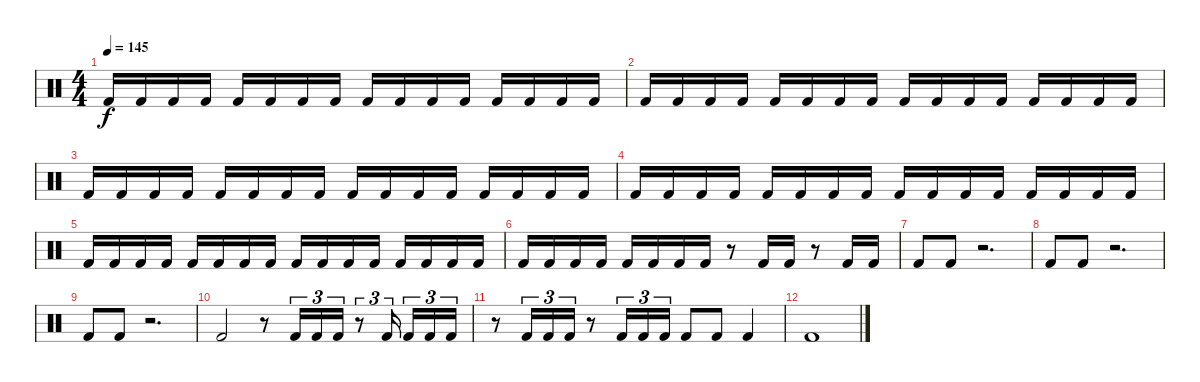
\track "" {instrument percussion}
\staff {score}
\articulation defaults
\ts (4 4)
\tempo 145
\clef neutral
\ks c "Kick (hit) 2".16{dy f} "Kick (hit) 2".16 "Kick (hit) 2".16 "Kick (hit) 2".16 "Kick (hit) 2".16 "Kick (hit) 2".16 "Kick (hit) 2".16 "Kick (hit) 2".16 "Kick (hit) 2".16 "Kick (hit) 2".16 "Kick (hit) 2".16 "Kick (hit) 2".16 "Kick (hit) 2".16 "Kick (hit) 2".16 "Kick (hit) 2".16 "Kick (hit) 2".16
|
"Kick (hit) 2".16 "Kick (hit) 2".16 "Kick (hit) 2".16 "Kick (hit) 2".16 "Kick (hit) 2".16 "Kick (hit) 2".16 "Kick (hit) 2".16 "Kick (hit) 2".16 "Kick (hit) 2".16 "Kick (hit) 2".16 "Kick (hit) 2".16 "Kick (hit) 2".16 "Kick (hit) 2".16 "Kick (hit) 2".16 "Kick (hit) 2".16 "Kick (hit) 2".16 |
"Kick (hit) 2".16 "Kick (hit) 2".16 "Kick (hit) 2".16 "Kick (hit) 2".16 "Kick (hit) 2".16 "Kick (hit) 2".16 "Kick (hit) 2".16 "Kick (hit) 2".16 "Kick (hit) 2".16 "Kick (hit) 2".16 "Kick (hit) 2".16 "Kick (hit) 2".16 "Kick (hit) 2".16 "Kick (hit) 2".16 "Kick (hit) 2".16 "Kick (hit) 2".16 |
"Kick (hit) 2".16 "Kick (hit) 2".16 "Kick (hit) 2".16 "Kick (hit) 2".16 "Kick (hit) 2".16 "Kick (hit) 2".16 "Kick (hit) 2".16 "Kick (hit) 2".16 "Kick (hit) 2".16 "Kick (hit) 2".16 "Kick (hit) 2".16 "Kick (hit) 2".16 "Kick (hit) 2".16 "Kick (hit) 2".16 "Kick (hit) 2".16 "Kick (hit) 2".16 |
"Kick (hit) 2".16 "Kick (hit) 2".16 "Kick (hit) 2".16 "Kick (hit) 2".16 "Kick (hit) 2".16 "Kick (hit) 2".16 "Kick (hit) 2".16 "Kick (hit) 2".16 "Kick (hit) 2".16 "Kick (hit) 2".16 "Kick (hit) 2".16 "Kick (hit) 2".16 "Kick (hit) 2".16 "Kick (hit) 2".16 "Kick (hit) 2".16 "Kick (hit) 2".16 |
"Kick (hit) 2".16 "Kick (hit) 2".16 "Kick (hit) 2".16 "Kick (hit) 2".16 "Kick (hit) 2".16 "Kick (hit) 2".16 "Kick (hit) 2".16 "Kick (hit) 2".16 r.8 "Kick (hit) 2".16 "Kick (hit) 2".16 r.8 "Kick (hit) 2".16 "Kick (hit) 2".16 |
"Kick (hit) 2".8 "Kick (hit) 2".8 r.2{d} |
"Kick (hit) 2".8 "Kick (hit) 2".8 r.2{d} |
"Kick (hit) 2".8 "Kick (hit) 2".8 r.2{d} |
"Kick (hit) 2".2 r.8 "Kick (hit) 2".16{tu (3 2)} "Kick (hit) 2".16{tu (3 2)} "Kick (hit) 2".16{tu (3 2)} r.8{tu (3 2)} "Kick (hit) 2".16{tu (3 2)} "Kick (hit) 2".16{tu (3 2)} "Kick (hit) 2".16{tu (3 2)} "Kick (hit) 2".16{tu (3 2)} |
r.8 "Kick (hit) 2".16{tu (3 2)} "Kick (hit) 2".16{tu (3 2)} "Kick (hit) 2".16{tu (3 2)} r.8 "Kick (hit) 2".16{tu (3 2)} "Kick (hit) 2".16{tu (3 2)} "Kick (hit) 2".16{tu (3 2)} "Kick (hit) 2".8 "Kick (hit) 2".8 "Kick (hit) 2".4 |
"Kick (hit) 2".1
